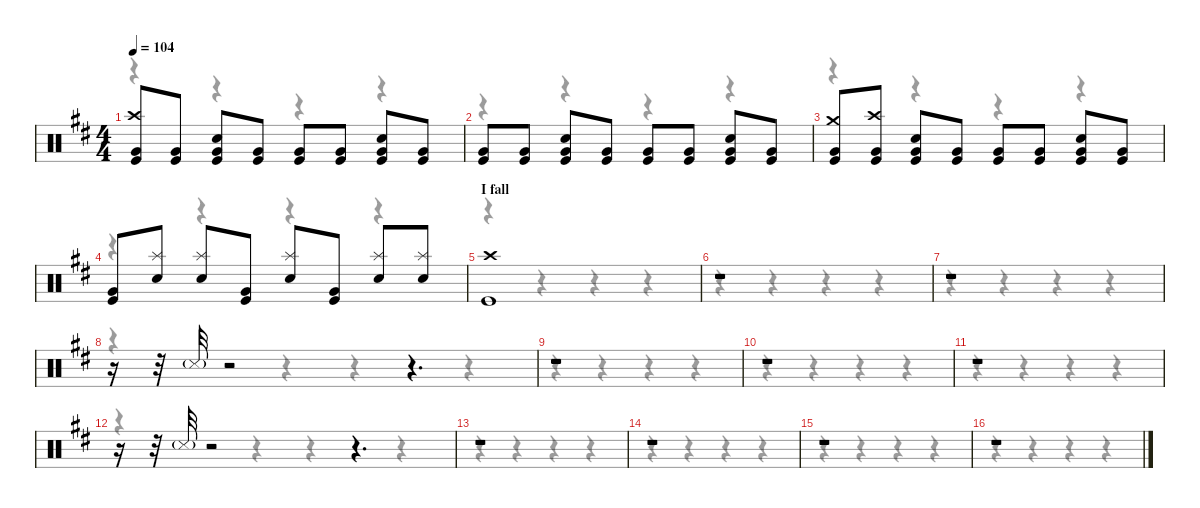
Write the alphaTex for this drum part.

\defaultSystemsLayout 4
\hideDynamics
\bracketExtendMode nobrackets
\singleTrackTrackNamePolicy hidden
\multiTrackTrackNamePolicy hidden
\firstSystemTrackNameMode fullname
\otherSystemsTrackNameOrientation horizontal
\track ("Drums" "drm.") {instrument percussion}
\staff {score}
\articulation defaults
\voice
\ts (4 4)
\tempo 104
\clef neutral
\ks bminor
("Crash high (hit)"{acc forcenatural} "Very Low Tom (hit)"{acc forcenatural} "Kick (hit)"{acc forcenatural}).8{dy mf beam Up} ("Very Low Tom (hit)"{acc forcenatural} "Kick (hit)"{acc forcenatural}).8{dy p beam Up} ("Snare (hit) 2"{acc forcenatural} "Very Low Tom (hit)"{acc forcenatural} "Kick (hit)"{acc forcenatural}).8{dy f beam Up} ("Very Low Tom (hit)"{acc forcenatural} "Kick (hit)"{acc forcenatural}).8{dy p beam Up} ("Very Low Tom (hit)"{acc forcenatural} "Kick (hit)"{acc forcenatural}).8{dy f beam Up} ("Very Low Tom (hit)"{acc forcenatural} "Kick (hit)"{acc forcenatural}).8{dy p beam Up} ("Snare (hit) 2"{acc forcenatural} "Very Low Tom (hit)"{acc forcenatural} "Kick (hit)"{acc forcenatural}).8{dy f beam Up} ("Very Low Tom (hit)"{acc forcenatural} "Kick (hit)"{acc forcenatural}).8{dy p beam Up} |
("Very Low Tom (hit)"{acc forcenatural} "Kick (hit)"{acc forcenatural}).8{dy f beam Up} ("Very Low Tom (hit)"{acc forcenatural} "Kick (hit)"{acc forcenatural}).8{dy p beam Up} ("Snare (hit) 2"{acc forcenatural} "Very Low Tom (hit)"{acc forcenatural} "Kick (hit)"{acc forcenatural}).8{dy f beam Up} ("Very Low Tom (hit)"{acc forcenatural} "Kick (hit)"{acc forcenatural}).8{dy p beam Up} ("Very Low Tom (hit)"{acc forcenatural} "Kick (hit)"{acc forcenatural}).8{dy f beam Up} ("Very Low Tom (hit)"{acc forcenatural} "Kick (hit)"{acc forcenatural}).8{dy p beam Up} ("Snare (hit) 2"{acc forcenatural} "Very Low Tom (hit)"{acc forcenatural} "Kick (hit)"{acc forcenatural}).8{dy f beam Up} ("Very Low Tom (hit)"{acc forcenatural} "Kick (hit)"{acc forcenatural}).8{dy p beam Up} |
("Crash medium (hit)"{acc forcenatural} "Very Low Tom (hit)"{acc forcenatural} "Kick (hit)"{acc forcenatural}).8{dy mf beam Up} ("Crash high (hit)"{acc forcenatural} "Very Low Tom (hit)"{acc forcenatural} "Kick (hit)"{acc forcenatural}).8{beam Up} ("Snare (hit) 2"{acc forcenatural} "Very Low Tom (hit)"{acc forcenatural} "Kick (hit)"{acc forcenatural}).8{dy f beam Up} ("Very Low Tom (hit)"{acc forcenatural} "Kick (hit)"{acc forcenatural}).8{dy p beam Up} ("Very Low Tom (hit)"{acc forcenatural} "Kick (hit)"{acc forcenatural}).8{dy f beam Up} ("Very Low Tom (hit)"{acc forcenatural} "Kick (hit)"{acc forcenatural}).8{dy p beam Up} ("Snare (hit) 2"{acc forcenatural} "Very Low Tom (hit)"{acc forcenatural} "Kick (hit)"{acc forcenatural}).8{dy f beam Up} ("Very Low Tom (hit)"{acc forcenatural} "Kick (hit)"{acc forcenatural}).8{dy p beam Up} |
("Very Low Tom (hit)"{acc forcenatural} "Kick (hit)"{acc forcenatural}).8{dy f beam Up} ("Splash (hit)"{acc forcenatural} "Snare (hit) 2"{acc forcenatural}).8{dy mf beam Up} ("Splash (hit)"{acc forcenatural} "Snare (hit) 2"{acc forcenatural}).8{beam Up} ("Very Low Tom (hit)"{acc forcenatural} "Kick (hit)"{acc forcenatural}).8{dy p beam Up} ("Splash (hit)"{acc forcenatural} "Snare (hit) 2"{acc forcenatural}).8{dy mf beam Up} ("Very Low Tom (hit)"{acc forcenatural} "Kick (hit)"{acc forcenatural}).8{dy p beam Up} ("Splash (hit)"{acc forcenatural} "Snare (hit) 2"{acc forcenatural}).8{dy mf beam Up} ("Splash (hit)"{acc forcenatural} "Snare (hit) 2"{acc forcenatural}).8{beam Up} |
\section ("" "I fall")
("Crash high (hit)"{acc forcenatural} "Kick (hit)"{acc forcenatural}).1{dy f beam Up} |
r.1{beam Up} |
r.1{beam Up} |
r.16{beam Up} r.32{beam Up} "Snare (side stick) 3"{g acc forcenatural}.32{dy mf beam Up} r.2{beam Up} r.4{d beam Up} |
r.1{beam Up} |
r.1{beam Up} |
r.1{beam Up} |
r.16{beam Up} r.32{beam Up} "Snare (side stick) 3"{g acc forcenatural}.32{beam Up} r.2{beam Up} r.4{d beam Up} |
r.1{beam Up} |
r.1{beam Up} |
r.1{beam Up} |
r.1{beam Up}
\voice
\clef neutral
\ottava regular
\simile none
\ks bminor
r.4{dy mf beam Down} r.4{beam Down} r.4{beam Down} r.4{beam Down} |
r.4{beam Down} r.4{beam Down} r.4{beam Down} r.4{beam Down} |
r.4{beam Down} r.4{beam Down} r.4{beam Down} r.4{beam Down} |
r.4{beam Down} r.4{beam Down} r.4{beam Down} r.4{beam Down} |
r.4{beam Down} r.4{beam Down} r.4{beam Down} r.4{beam Down} |
r.4{beam Down} r.4{beam Down} r.4{beam Down} r.4{beam Down} |
r.4{beam Down} r.4{beam Down} r.4{beam Down} r.4{beam Down} |
r.4{beam Down} r.4{beam Down} r.4{beam Down} r.4{beam Down} |
r.4{beam Down} r.4{beam Down} r.4{beam Down} r.4{beam Down} |
r.4{beam Down} r.4{beam Down} r.4{beam Down} r.4{beam Down} |
r.4{beam Down} r.4{beam Down} r.4{beam Down} r.4{beam Down} |
r.4{beam Down} r.4{beam Down} r.4{beam Down} r.4{beam Down} |
r.4{beam Down} r.4{beam Down} r.4{beam Down} r.4{beam Down} |
r.4{beam Down} r.4{beam Down} r.4{beam Down} r.4{beam Down} |
r.4{beam Down} r.4{beam Down} r.4{beam Down} r.4{beam Down} |
r.4{beam Down} r.4{beam Down} r.4{beam Down} r.4{beam Down}
